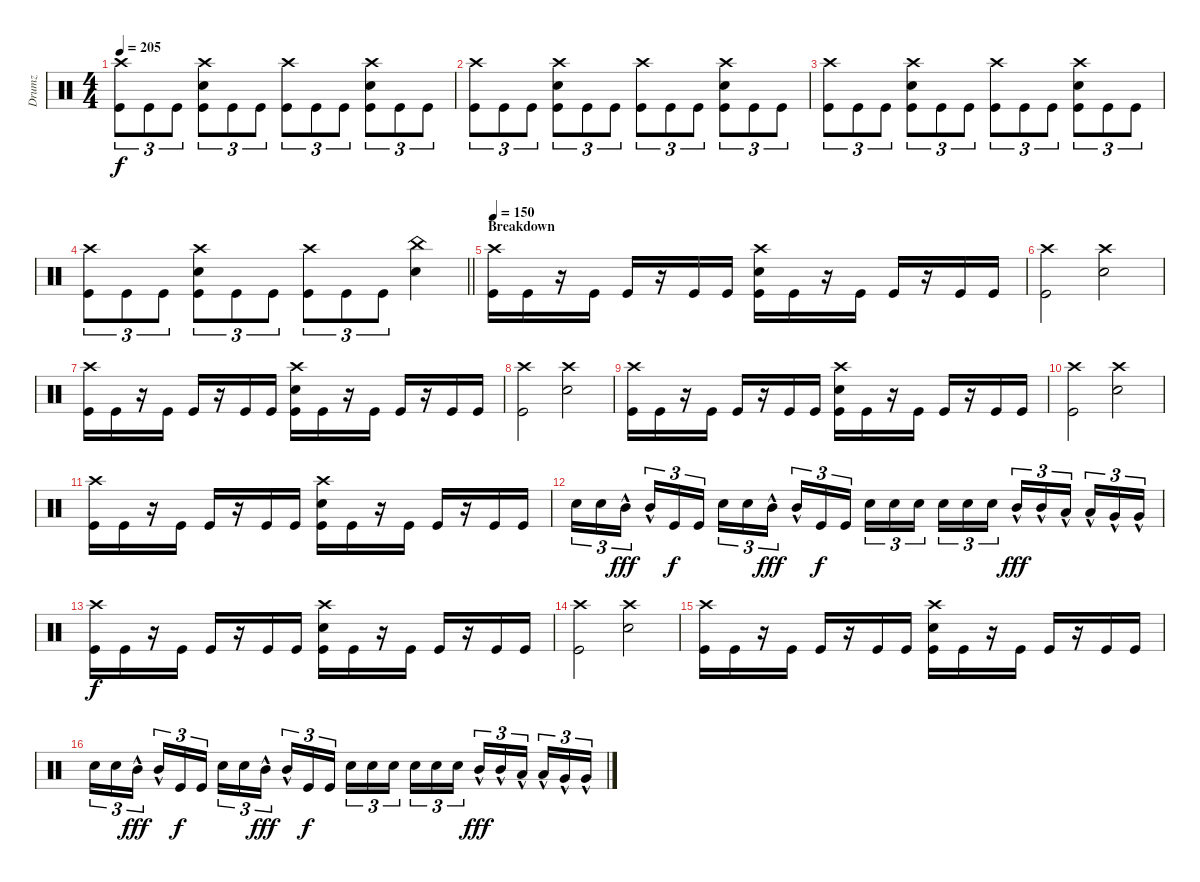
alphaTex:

\track ("Drumz" "Drumz") {instrument percussion}
\staff {score}
\articulation defaults
\ts (4 4)
\tempo 205
\clef neutral
\ks c
("Crash high (hit)" "Kick (hit)").8{tu (3 2) dy f} "Kick (hit)".8{tu (3 2)} "Kick (hit)".8{tu (3 2)} ("Crash high (hit)" "Electric Snare (hit)" "Kick (hit)").8{tu (3 2)} "Kick (hit)".8{tu (3 2)} "Kick (hit)".8{tu (3 2)} ("Crash high (hit)" "Kick (hit)").8{tu (3 2)} "Kick (hit)".8{tu (3 2)} "Kick (hit)".8{tu (3 2)} ("Crash high (hit)" "Electric Snare (hit)" "Kick (hit)").8{tu (3 2)} "Kick (hit)".8{tu (3 2)} "Kick (hit)".8{tu (3 2)} |
("Crash high (hit)" "Kick (hit)").8{tu (3 2)} "Kick (hit)".8{tu (3 2)} "Kick (hit)".8{tu (3 2)} ("Crash high (hit)" "Electric Snare (hit)" "Kick (hit)").8{tu (3 2)} "Kick (hit)".8{tu (3 2)} "Kick (hit)".8{tu (3 2)} ("Crash high (hit)" "Kick (hit)").8{tu (3 2)} "Kick (hit)".8{tu (3 2)} "Kick (hit)".8{tu (3 2)} ("Crash high (hit)" "Electric Snare (hit)" "Kick (hit)").8{tu (3 2)} "Kick (hit)".8{tu (3 2)} "Kick (hit)".8{tu (3 2)} |
("Crash high (hit)" "Kick (hit)").8{tu (3 2)} "Kick (hit)".8{tu (3 2)} "Kick (hit)".8{tu (3 2)} ("Crash high (hit)" "Electric Snare (hit)" "Kick (hit)").8{tu (3 2)} "Kick (hit)".8{tu (3 2)} "Kick (hit)".8{tu (3 2)} ("Crash high (hit)" "Kick (hit)").8{tu (3 2)} "Kick (hit)".8{tu (3 2)} "Kick (hit)".8{tu (3 2)} ("Crash high (hit)" "Electric Snare (hit)" "Kick (hit)").8{tu (3 2)} "Kick (hit)".8{tu (3 2)} "Kick (hit)".8{tu (3 2)} |
\barLineRight lightlight
("Crash high (hit)" "Kick (hit)").8{tu (3 2)} "Kick (hit)".8{tu (3 2)} "Kick (hit)".8{tu (3 2)} ("Crash high (hit)" "Electric Snare (hit)" "Kick (hit)").8{tu (3 2)} "Kick (hit)".8{tu (3 2)} "Kick (hit)".8{tu (3 2)} ("Crash high (hit)" "Kick (hit)").8{tu (3 2)} "Kick (hit)".8{tu (3 2)} "Kick (hit)".8{tu (3 2)} ("China (hit)" "Electric Snare (hit)").4 |
\section ("" "Breakdown")
\tempo 160
\tempo 150
("Crash high (hit)" "Kick (hit)").16 "Kick (hit)".16 r.16 "Kick (hit)".16 "Kick (hit)".16 r.16 "Kick (hit)".16 "Kick (hit)".16 ("Crash high (hit)" "Electric Snare (hit)" "Kick (hit)").16 "Kick (hit)".16 r.16 "Kick (hit)".16 "Kick (hit)".16 r.16 "Kick (hit)".16 "Kick (hit)".16 |
("Crash high (hit)" "Kick (hit)").2 ("Crash high (hit)" "Electric Snare (hit)").2 |
("Crash high (hit)" "Kick (hit)").16 "Kick (hit)".16 r.16 "Kick (hit)".16 "Kick (hit)".16 r.16 "Kick (hit)".16 "Kick (hit)".16 ("Crash high (hit)" "Electric Snare (hit)" "Kick (hit)").16 "Kick (hit)".16 r.16 "Kick (hit)".16 "Kick (hit)".16 r.16 "Kick (hit)".16 "Kick (hit)".16 |
("Crash high (hit)" "Kick (hit)").2 ("Crash high (hit)" "Electric Snare (hit)").2 |
("Crash high (hit)" "Kick (hit)").16 "Kick (hit)".16 r.16 "Kick (hit)".16 "Kick (hit)".16 r.16 "Kick (hit)".16 "Kick (hit)".16 ("Crash high (hit)" "Electric Snare (hit)" "Kick (hit)").16 "Kick (hit)".16 r.16 "Kick (hit)".16 "Kick (hit)".16 r.16 "Kick (hit)".16 "Kick (hit)".16 |
("Crash high (hit)" "Kick (hit)").2 ("Crash high (hit)" "Electric Snare (hit)").2 |
("Crash high (hit)" "Kick (hit)").16 "Kick (hit)".16 r.16 "Kick (hit)".16 "Kick (hit)".16 r.16 "Kick (hit)".16 "Kick (hit)".16 ("Crash high (hit)" "Electric Snare (hit)" "Kick (hit)").16 "Kick (hit)".16 r.16 "Kick (hit)".16 "Kick (hit)".16 r.16 "Kick (hit)".16 "Kick (hit)".16 |
"Electric Snare (hit)".16{tu (3 2)} "Electric Snare (hit)".16{tu (3 2)} "Mid Tom (hit)"{hac}.16{tu (3 2) dy fff beam splitsecondary} "Mid Tom (hit)"{hac}.16{tu (3 2)} "Kick (hit)".16{tu (3 2) dy f} "Kick (hit)".16{tu (3 2)} "Electric Snare (hit)".16{tu (3 2)} "Electric Snare (hit)".16{tu (3 2)} "Mid Tom (hit)"{hac}.16{tu (3 2) dy fff beam splitsecondary} "Mid Tom (hit)"{hac}.16{tu (3 2)} "Kick (hit)".16{tu (3 2) dy f} "Kick (hit)".16{tu (3 2)} "Electric Snare (hit)".16{tu (3 2)} "Electric Snare (hit)".16{tu (3 2)} "Electric Snare (hit)".16{tu (3 2) beam splitsecondary} "Electric Snare (hit)".16{tu (3 2)} "Electric Snare (hit)".16{tu (3 2)} "Electric Snare (hit)".16{tu (3 2)} "Mid Tom (hit)"{hac}.16{tu (3 2) dy fff} "Mid Tom (hit)"{hac}.16{tu (3 2)} "Low Tom (hit)"{hac}.16{tu (3 2) beam splitsecondary} "Low Tom (hit)"{hac}.16{tu (3 2)} "Very Low Tom (hit)"{hac}.16{tu (3 2)} "Very Low Tom (hit)"{hac}.16{tu (3 2)} |
("Crash high (hit)" "Kick (hit)").16{dy f} "Kick (hit)".16 r.16 "Kick (hit)".16 "Kick (hit)".16 r.16 "Kick (hit)".16 "Kick (hit)".16 ("Crash high (hit)" "Electric Snare (hit)" "Kick (hit)").16 "Kick (hit)".16 r.16 "Kick (hit)".16 "Kick (hit)".16 r.16 "Kick (hit)".16 "Kick (hit)".16 |
("Crash high (hit)" "Kick (hit)").2 ("Crash high (hit)" "Electric Snare (hit)").2 |
("Crash high (hit)" "Kick (hit)").16 "Kick (hit)".16 r.16 "Kick (hit)".16 "Kick (hit)".16 r.16 "Kick (hit)".16 "Kick (hit)".16 ("Crash high (hit)" "Electric Snare (hit)" "Kick (hit)").16 "Kick (hit)".16 r.16 "Kick (hit)".16 "Kick (hit)".16 r.16 "Kick (hit)".16 "Kick (hit)".16 |
"Electric Snare (hit)".16{tu (3 2)} "Electric Snare (hit)".16{tu (3 2)} "Mid Tom (hit)"{hac}.16{tu (3 2) dy fff beam splitsecondary} "Mid Tom (hit)"{hac}.16{tu (3 2)} "Kick (hit)".16{tu (3 2) dy f} "Kick (hit)".16{tu (3 2)} "Electric Snare (hit)".16{tu (3 2)} "Electric Snare (hit)".16{tu (3 2)} "Mid Tom (hit)"{hac}.16{tu (3 2) dy fff beam splitsecondary} "Mid Tom (hit)"{hac}.16{tu (3 2)} "Kick (hit)".16{tu (3 2) dy f} "Kick (hit)".16{tu (3 2)} "Electric Snare (hit)".16{tu (3 2)} "Electric Snare (hit)".16{tu (3 2)} "Electric Snare (hit)".16{tu (3 2) beam splitsecondary} "Electric Snare (hit)".16{tu (3 2)} "Electric Snare (hit)".16{tu (3 2)} "Electric Snare (hit)".16{tu (3 2)} "Mid Tom (hit)"{hac}.16{tu (3 2) dy fff} "Mid Tom (hit)"{hac}.16{tu (3 2)} "Low Tom (hit)"{hac}.16{tu (3 2) beam splitsecondary} "Low Tom (hit)"{hac}.16{tu (3 2)} "Very Low Tom (hit)"{hac}.16{tu (3 2)} "Very Low Tom (hit)"{hac}.16{tu (3 2)}
